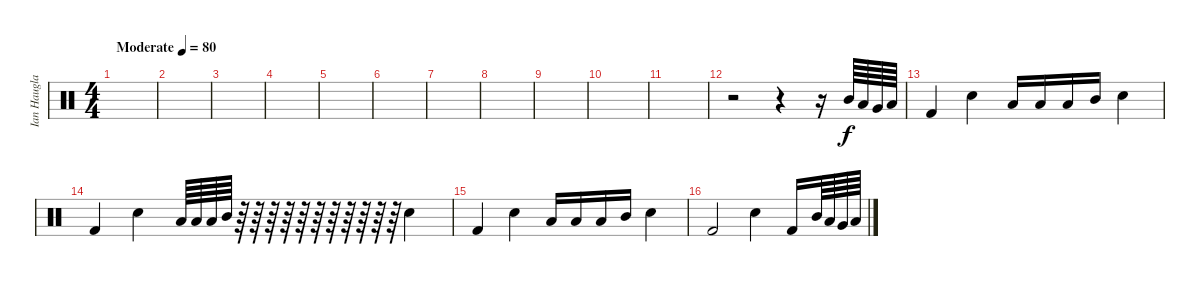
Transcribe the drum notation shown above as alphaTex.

\track ("Ian Haugland" "Ian Haugla") {instrument percussion}
\staff {score}
\articulation defaults
\ts (4 4)
\tempo (80 "Moderate")
\clef neutral
\ks c
|
|
|
|
|
|
|
|
|
|
|
r.2 r.4 r.16 "Mid Tom (hit)".64 "Low Tom (hit)".64 "Very Low Tom (hit)".64 "Low Floor Tom (hit)".64 |
"Kick (hit) 2".4 "Electric Snare (hit)".4 "Low Floor Tom (hit)".16 "Low Tom (hit)".16 "Low Floor Tom (hit)".16 "Mid Tom (hit)".16 "Electric Snare (hit)".4 |
"Kick (hit) 2".4 "Electric Snare (hit)".4 "Low Floor Tom (hit)".64 "Low Tom (hit)".64 "Low Floor Tom (hit)".64 "Mid Tom (hit)".64 r.64 r.64 r.64 r.64 r.64 r.64 r.64 r.64 r.64 r.64 r.64 "Electric Snare (hit)".4 |
"Kick (hit) 2".4 "Electric Snare (hit)".4 "Low Floor Tom (hit)".16 "Low Tom (hit)".16 "Low Floor Tom (hit)".16 "Mid Tom (hit)".16 "Electric Snare (hit)".4 |
"Kick (hit) 2".2 "Electric Snare (hit)".4 "Kick (hit) 2".16 "Mid Tom (hit)".64 "Low Tom (hit)".64 "Very Low Tom (hit)".64 "Low Floor Tom (hit)".64
